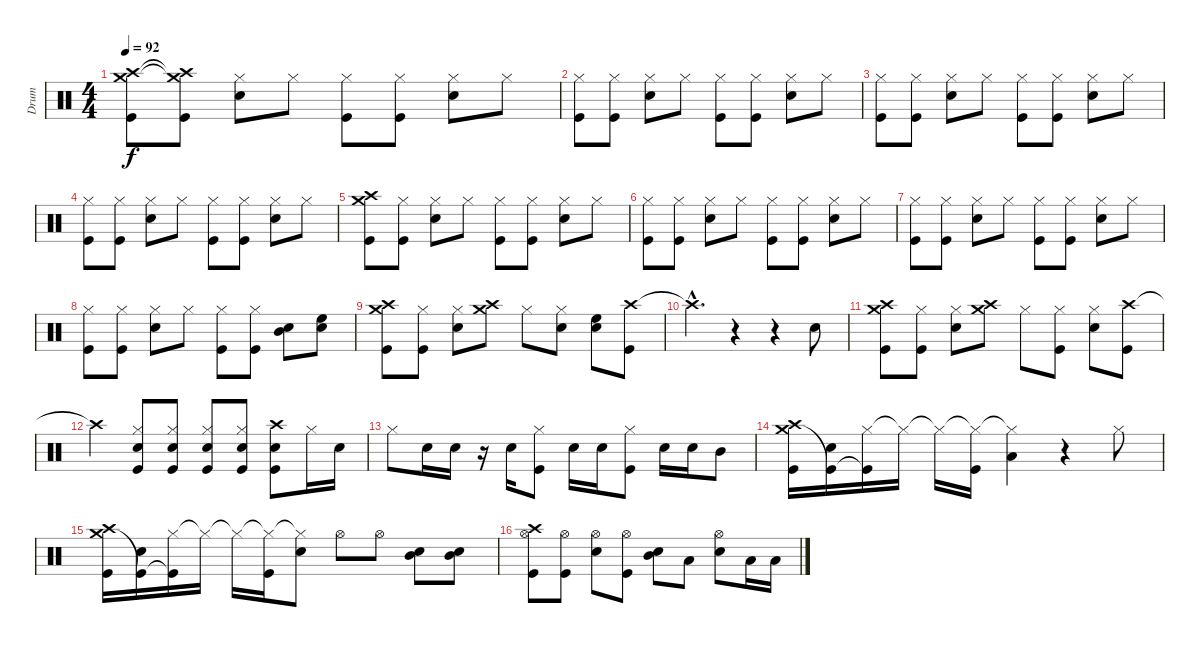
\track ("Drum" "Drum") {instrument percussion}
\staff {score}
\articulation defaults
\ts (4 4)
\tempo 92
\clef neutral
\ks c
("Crash high (hit)" "Crash medium (hit)" "Kick (hit)").8{dy f} ("Crash high (hit)"{t} "Crash medium (hit)"{t} "Kick (hit)").8 ("Hi-Hat (closed)" "Snare (hit) 2").8 "Hi-Hat (closed)".8 ("Hi-Hat (closed)" "Kick (hit)").8 ("Hi-Hat (closed)" "Kick (hit)").8 ("Hi-Hat (closed)" "Snare (hit) 2").8 "Hi-Hat (closed)".8 |
("Hi-Hat (closed)" "Kick (hit)").8 ("Hi-Hat (closed)" "Kick (hit)").8 ("Hi-Hat (closed)" "Snare (hit) 2").8 "Hi-Hat (closed)".8 ("Hi-Hat (closed)" "Kick (hit)").8 ("Hi-Hat (closed)" "Kick (hit)").8 ("Hi-Hat (closed)" "Snare (hit) 2").8 "Hi-Hat (closed)".8 |
("Hi-Hat (closed)" "Kick (hit)").8 ("Hi-Hat (closed)" "Kick (hit)").8 ("Hi-Hat (closed)" "Snare (hit) 2").8 "Hi-Hat (closed)".8 ("Hi-Hat (closed)" "Kick (hit)").8 ("Hi-Hat (closed)" "Kick (hit)").8 ("Hi-Hat (closed)" "Snare (hit) 2").8 "Hi-Hat (closed)".8 |
("Hi-Hat (closed)" "Kick (hit)").8 ("Hi-Hat (closed)" "Kick (hit)").8 ("Hi-Hat (closed)" "Snare (hit) 2").8 "Hi-Hat (closed)".8 ("Hi-Hat (closed)" "Kick (hit)").8 ("Hi-Hat (closed)" "Kick (hit)").8 ("Hi-Hat (closed)" "Snare (hit) 2").8 "Hi-Hat (closed)".8 |
("Crash high (hit)" "Crash medium (hit)" "Kick (hit)").8 ("Hi-Hat (closed)" "Kick (hit)").8 ("Hi-Hat (closed)" "Snare (hit) 2").8 "Hi-Hat (closed)".8 ("Hi-Hat (closed)" "Kick (hit)").8 ("Hi-Hat (closed)" "Kick (hit)").8 ("Hi-Hat (closed)" "Snare (hit) 2").8 "Hi-Hat (closed)".8 |
("Hi-Hat (closed)" "Kick (hit)").8 ("Hi-Hat (closed)" "Kick (hit)").8 ("Hi-Hat (closed)" "Snare (hit) 2").8 "Hi-Hat (closed)".8 ("Hi-Hat (closed)" "Kick (hit)").8 ("Hi-Hat (closed)" "Kick (hit)").8 ("Hi-Hat (closed)" "Snare (hit) 2").8 "Hi-Hat (closed)".8 |
("Hi-Hat (closed)" "Kick (hit)").8 ("Hi-Hat (closed)" "Kick (hit)").8 ("Hi-Hat (closed)" "Snare (hit) 2").8 "Hi-Hat (closed)".8 ("Hi-Hat (closed)" "Kick (hit)").8 ("Hi-Hat (closed)" "Kick (hit)").8 ("Hi-Hat (closed)" "Snare (hit) 2").8 "Hi-Hat (closed)".8 |
("Hi-Hat (closed)" "Kick (hit)").8 ("Hi-Hat (closed)" "Kick (hit)").8 ("Hi-Hat (closed)" "Snare (hit) 2").8 "Hi-Hat (closed)".8 ("Hi-Hat (closed)" "Kick (hit)").8 ("Hi-Hat (closed)" "Kick (hit)").8 ("Mid Tom (hit)" "Snare (hit) 2").8 ("High Floor Tom (hit)" "Snare (hit) 2").8 |
("Crash high (hit)" "Crash medium (hit)" "Kick (hit)").8 ("Hi-Hat (closed)" "Kick (hit)").8 ("Hi-Hat (closed)" "Snare (hit) 2").8 ("Crash high (hit)" "Crash medium (hit)").8 "Hi-Hat (closed)".8 ("Hi-Hat (closed)" "Snare (hit) 2").8 ("High Floor Tom (hit)" "Snare (hit) 2").8 ("Crash high (hit)" "Kick (hit)").8 |
"Crash high (hit)"{hac t}.4{d} r.4 r.4 "Snare (hit) 2".8 |
("Crash high (hit)" "Crash medium (hit)" "Kick (hit)").8 ("Hi-Hat (closed)" "Kick (hit)").8 ("Hi-Hat (closed)" "Snare (hit) 2").8 ("Crash high (hit)" "Crash medium (hit)").8 "Hi-Hat (closed)".8 ("Hi-Hat (closed)" "Kick (hit)").8 ("Hi-Hat (closed)" "Snare (hit) 2").8 ("Crash high (hit)" "Kick (hit)").8 |
"Crash high (hit)"{t}.4 ("Hi-Hat (closed)" "Snare (hit) 2" "Kick (hit)").8 ("Hi-Hat (closed)" "Snare (hit) 2" "Kick (hit)").8 ("Hi-Hat (closed)" "Snare (hit) 2" "Kick (hit)").8 ("Hi-Hat (closed)" "Snare (hit) 2" "Kick (hit)").8 ("Crash high (hit)" "Snare (hit) 2" "Kick (hit)").8 "Hi-Hat (closed)".16 "Snare (hit) 2".16 |
"Hi-Hat (closed)".8 "Snare (hit) 2".16 "Snare (hit) 2".16 r.16 "Snare (hit) 2".16 ("Hi-Hat (closed)" "Kick (hit)").8 "Snare (hit) 2".16 "Snare (hit) 2".16 ("Hi-Hat (closed)" "Kick (hit)").8 "Snare (hit) 2".16 "Snare (hit) 2".16 "Mid Tom (hit)".8 |
("Crash high (hit)" "Crash medium (hit)" "Kick (hit)").16 ("Snare (hit) 2" "Kick (hit)"{t}).16 ("Hi-Hat (closed)" "Kick (hit)"{t}).16 "Hi-Hat (closed)"{t}.16 "Hi-Hat (closed)"{t}.16 ("Hi-Hat (closed)"{t} "Kick (hit)").16 ("Hi-Hat (closed)"{t} "Low Tom (hit)").4 r.4 "Hi-Hat (closed)".8 |
("Crash high (hit)" "Crash medium (hit)" "Kick (hit)").16 ("Snare (hit) 2" "Kick (hit)"{t}).16 ("Hi-Hat (closed)" "Kick (hit)"{t}).16 "Hi-Hat (closed)"{t}.16 "Hi-Hat (closed)"{t}.16 ("Hi-Hat (closed)"{t} "Kick (hit)").16 ("Hi-Hat (closed)"{t} "Snare (hit) 2").8 "Hi-Hat (open)".8 "Hi-Hat (open)".8 ("Mid Tom (hit)" "Snare (hit) 2").8 ("Mid Tom (hit)" "Snare (hit) 2").8 |
("Crash high (hit)" "Hi-Hat (open)" "Kick (hit)").8 ("Hi-Hat (open)" "Kick (hit)").8 ("Hi-Hat (open)" "Snare (hit) 2").8 ("Hi-Hat (open)" "Kick (hit)").8 ("Mid Tom (hit)" "Snare (hit) 2").8 "Low Tom (hit)".8 ("Hi-Hat (open)" "Snare (hit) 2").8 "Low Tom (hit)".16 "Low Tom (hit)".16
